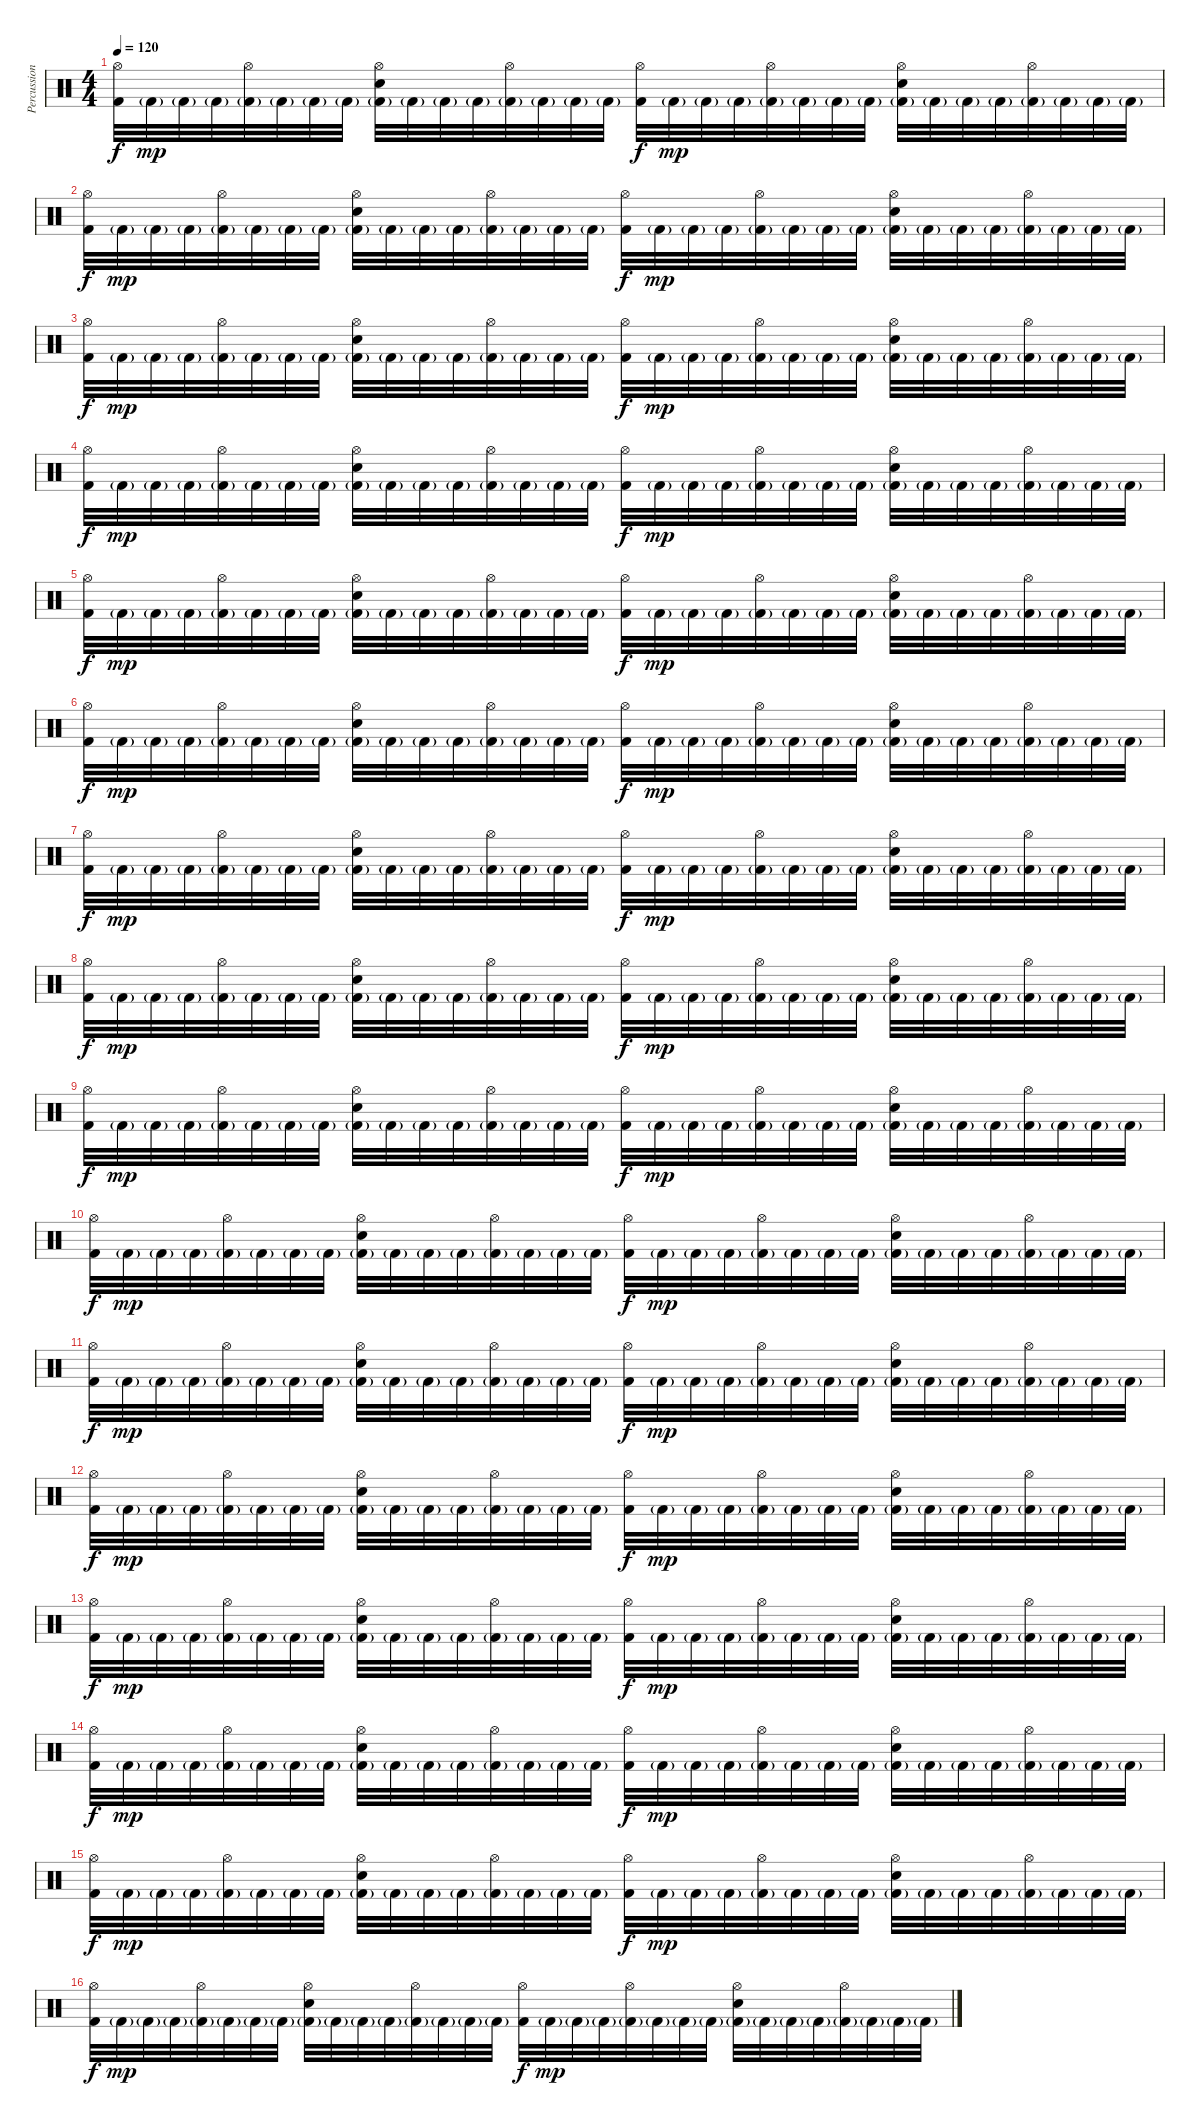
\track ("Percussion" "Percussion") {instrument percussion}
\staff {score}
\articulation defaults
\ts (4 4)
\tempo 120
\clef neutral
\ks c
("Hi-Hat (open)" "Kick (hit) 2").32{dy f} "Kick (hit) 2"{g}.32{dy mp} "Kick (hit) 2"{g}.32 "Kick (hit) 2"{g}.32 ("Hi-Hat (open)" "Kick (hit) 2"{g}).32 "Kick (hit) 2"{g}.32 "Kick (hit) 2"{g}.32 "Kick (hit) 2"{g}.32 ("Hi-Hat (open)" "Electric Snare (hit)" "Kick (hit) 2"{g}).32 "Kick (hit) 2"{g}.32 "Kick (hit) 2"{g}.32 "Kick (hit) 2"{g}.32 ("Hi-Hat (open)" "Kick (hit) 2"{g}).32 "Kick (hit) 2"{g}.32 "Kick (hit) 2"{g}.32 "Kick (hit) 2"{g}.32 ("Hi-Hat (open)" "Kick (hit) 2").32{dy f} "Kick (hit) 2"{g}.32{dy mp} "Kick (hit) 2"{g}.32 "Kick (hit) 2"{g}.32 ("Hi-Hat (open)" "Kick (hit) 2"{g}).32 "Kick (hit) 2"{g}.32 "Kick (hit) 2"{g}.32 "Kick (hit) 2"{g}.32 ("Hi-Hat (open)" "Electric Snare (hit)" "Kick (hit) 2"{g}).32 "Kick (hit) 2"{g}.32 "Kick (hit) 2"{g}.32 "Kick (hit) 2"{g}.32 ("Hi-Hat (open)" "Kick (hit) 2"{g}).32 "Kick (hit) 2"{g}.32 "Kick (hit) 2"{g}.32 "Kick (hit) 2"{g}.32 |
("Hi-Hat (open)" "Kick (hit) 2").32{dy f} "Kick (hit) 2"{g}.32{dy mp} "Kick (hit) 2"{g}.32 "Kick (hit) 2"{g}.32 ("Hi-Hat (open)" "Kick (hit) 2"{g}).32 "Kick (hit) 2"{g}.32 "Kick (hit) 2"{g}.32 "Kick (hit) 2"{g}.32 ("Hi-Hat (open)" "Electric Snare (hit)" "Kick (hit) 2"{g}).32 "Kick (hit) 2"{g}.32 "Kick (hit) 2"{g}.32 "Kick (hit) 2"{g}.32 ("Hi-Hat (open)" "Kick (hit) 2"{g}).32 "Kick (hit) 2"{g}.32 "Kick (hit) 2"{g}.32 "Kick (hit) 2"{g}.32 ("Hi-Hat (open)" "Kick (hit) 2").32{dy f} "Kick (hit) 2"{g}.32{dy mp} "Kick (hit) 2"{g}.32 "Kick (hit) 2"{g}.32 ("Hi-Hat (open)" "Kick (hit) 2"{g}).32 "Kick (hit) 2"{g}.32 "Kick (hit) 2"{g}.32 "Kick (hit) 2"{g}.32 ("Hi-Hat (open)" "Electric Snare (hit)" "Kick (hit) 2"{g}).32 "Kick (hit) 2"{g}.32 "Kick (hit) 2"{g}.32 "Kick (hit) 2"{g}.32 ("Hi-Hat (open)" "Kick (hit) 2"{g}).32 "Kick (hit) 2"{g}.32 "Kick (hit) 2"{g}.32 "Kick (hit) 2"{g}.32 |
("Hi-Hat (open)" "Kick (hit) 2").32{dy f} "Kick (hit) 2"{g}.32{dy mp} "Kick (hit) 2"{g}.32 "Kick (hit) 2"{g}.32 ("Hi-Hat (open)" "Kick (hit) 2"{g}).32 "Kick (hit) 2"{g}.32 "Kick (hit) 2"{g}.32 "Kick (hit) 2"{g}.32 ("Hi-Hat (open)" "Electric Snare (hit)" "Kick (hit) 2"{g}).32 "Kick (hit) 2"{g}.32 "Kick (hit) 2"{g}.32 "Kick (hit) 2"{g}.32 ("Hi-Hat (open)" "Kick (hit) 2"{g}).32 "Kick (hit) 2"{g}.32 "Kick (hit) 2"{g}.32 "Kick (hit) 2"{g}.32 ("Hi-Hat (open)" "Kick (hit) 2").32{dy f} "Kick (hit) 2"{g}.32{dy mp} "Kick (hit) 2"{g}.32 "Kick (hit) 2"{g}.32 ("Hi-Hat (open)" "Kick (hit) 2"{g}).32 "Kick (hit) 2"{g}.32 "Kick (hit) 2"{g}.32 "Kick (hit) 2"{g}.32 ("Hi-Hat (open)" "Electric Snare (hit)" "Kick (hit) 2"{g}).32 "Kick (hit) 2"{g}.32 "Kick (hit) 2"{g}.32 "Kick (hit) 2"{g}.32 ("Hi-Hat (open)" "Kick (hit) 2"{g}).32 "Kick (hit) 2"{g}.32 "Kick (hit) 2"{g}.32 "Kick (hit) 2"{g}.32 |
("Hi-Hat (open)" "Kick (hit) 2").32{dy f} "Kick (hit) 2"{g}.32{dy mp} "Kick (hit) 2"{g}.32 "Kick (hit) 2"{g}.32 ("Hi-Hat (open)" "Kick (hit) 2"{g}).32 "Kick (hit) 2"{g}.32 "Kick (hit) 2"{g}.32 "Kick (hit) 2"{g}.32 ("Hi-Hat (open)" "Electric Snare (hit)" "Kick (hit) 2"{g}).32 "Kick (hit) 2"{g}.32 "Kick (hit) 2"{g}.32 "Kick (hit) 2"{g}.32 ("Hi-Hat (open)" "Kick (hit) 2"{g}).32 "Kick (hit) 2"{g}.32 "Kick (hit) 2"{g}.32 "Kick (hit) 2"{g}.32 ("Hi-Hat (open)" "Kick (hit) 2").32{dy f} "Kick (hit) 2"{g}.32{dy mp} "Kick (hit) 2"{g}.32 "Kick (hit) 2"{g}.32 ("Hi-Hat (open)" "Kick (hit) 2"{g}).32 "Kick (hit) 2"{g}.32 "Kick (hit) 2"{g}.32 "Kick (hit) 2"{g}.32 ("Hi-Hat (open)" "Electric Snare (hit)" "Kick (hit) 2"{g}).32 "Kick (hit) 2"{g}.32 "Kick (hit) 2"{g}.32 "Kick (hit) 2"{g}.32 ("Hi-Hat (open)" "Kick (hit) 2"{g}).32 "Kick (hit) 2"{g}.32 "Kick (hit) 2"{g}.32 "Kick (hit) 2"{g}.32 |
("Hi-Hat (open)" "Kick (hit) 2").32{dy f} "Kick (hit) 2"{g}.32{dy mp} "Kick (hit) 2"{g}.32 "Kick (hit) 2"{g}.32 ("Hi-Hat (open)" "Kick (hit) 2"{g}).32 "Kick (hit) 2"{g}.32 "Kick (hit) 2"{g}.32 "Kick (hit) 2"{g}.32 ("Hi-Hat (open)" "Electric Snare (hit)" "Kick (hit) 2"{g}).32 "Kick (hit) 2"{g}.32 "Kick (hit) 2"{g}.32 "Kick (hit) 2"{g}.32 ("Hi-Hat (open)" "Kick (hit) 2"{g}).32 "Kick (hit) 2"{g}.32 "Kick (hit) 2"{g}.32 "Kick (hit) 2"{g}.32 ("Hi-Hat (open)" "Kick (hit) 2").32{dy f} "Kick (hit) 2"{g}.32{dy mp} "Kick (hit) 2"{g}.32 "Kick (hit) 2"{g}.32 ("Hi-Hat (open)" "Kick (hit) 2"{g}).32 "Kick (hit) 2"{g}.32 "Kick (hit) 2"{g}.32 "Kick (hit) 2"{g}.32 ("Hi-Hat (open)" "Electric Snare (hit)" "Kick (hit) 2"{g}).32 "Kick (hit) 2"{g}.32 "Kick (hit) 2"{g}.32 "Kick (hit) 2"{g}.32 ("Hi-Hat (open)" "Kick (hit) 2"{g}).32 "Kick (hit) 2"{g}.32 "Kick (hit) 2"{g}.32 "Kick (hit) 2"{g}.32 |
("Hi-Hat (open)" "Kick (hit) 2").32{dy f} "Kick (hit) 2"{g}.32{dy mp} "Kick (hit) 2"{g}.32 "Kick (hit) 2"{g}.32 ("Hi-Hat (open)" "Kick (hit) 2"{g}).32 "Kick (hit) 2"{g}.32 "Kick (hit) 2"{g}.32 "Kick (hit) 2"{g}.32 ("Hi-Hat (open)" "Electric Snare (hit)" "Kick (hit) 2"{g}).32 "Kick (hit) 2"{g}.32 "Kick (hit) 2"{g}.32 "Kick (hit) 2"{g}.32 ("Hi-Hat (open)" "Kick (hit) 2"{g}).32 "Kick (hit) 2"{g}.32 "Kick (hit) 2"{g}.32 "Kick (hit) 2"{g}.32 ("Hi-Hat (open)" "Kick (hit) 2").32{dy f} "Kick (hit) 2"{g}.32{dy mp} "Kick (hit) 2"{g}.32 "Kick (hit) 2"{g}.32 ("Hi-Hat (open)" "Kick (hit) 2"{g}).32 "Kick (hit) 2"{g}.32 "Kick (hit) 2"{g}.32 "Kick (hit) 2"{g}.32 ("Hi-Hat (open)" "Electric Snare (hit)" "Kick (hit) 2"{g}).32 "Kick (hit) 2"{g}.32 "Kick (hit) 2"{g}.32 "Kick (hit) 2"{g}.32 ("Hi-Hat (open)" "Kick (hit) 2"{g}).32 "Kick (hit) 2"{g}.32 "Kick (hit) 2"{g}.32 "Kick (hit) 2"{g}.32 |
("Hi-Hat (open)" "Kick (hit) 2").32{dy f} "Kick (hit) 2"{g}.32{dy mp} "Kick (hit) 2"{g}.32 "Kick (hit) 2"{g}.32 ("Hi-Hat (open)" "Kick (hit) 2"{g}).32 "Kick (hit) 2"{g}.32 "Kick (hit) 2"{g}.32 "Kick (hit) 2"{g}.32 ("Hi-Hat (open)" "Electric Snare (hit)" "Kick (hit) 2"{g}).32 "Kick (hit) 2"{g}.32 "Kick (hit) 2"{g}.32 "Kick (hit) 2"{g}.32 ("Hi-Hat (open)" "Kick (hit) 2"{g}).32 "Kick (hit) 2"{g}.32 "Kick (hit) 2"{g}.32 "Kick (hit) 2"{g}.32 ("Hi-Hat (open)" "Kick (hit) 2").32{dy f} "Kick (hit) 2"{g}.32{dy mp} "Kick (hit) 2"{g}.32 "Kick (hit) 2"{g}.32 ("Hi-Hat (open)" "Kick (hit) 2"{g}).32 "Kick (hit) 2"{g}.32 "Kick (hit) 2"{g}.32 "Kick (hit) 2"{g}.32 ("Hi-Hat (open)" "Electric Snare (hit)" "Kick (hit) 2"{g}).32 "Kick (hit) 2"{g}.32 "Kick (hit) 2"{g}.32 "Kick (hit) 2"{g}.32 ("Hi-Hat (open)" "Kick (hit) 2"{g}).32 "Kick (hit) 2"{g}.32 "Kick (hit) 2"{g}.32 "Kick (hit) 2"{g}.32 |
("Hi-Hat (open)" "Kick (hit) 2").32{dy f} "Kick (hit) 2"{g}.32{dy mp} "Kick (hit) 2"{g}.32 "Kick (hit) 2"{g}.32 ("Hi-Hat (open)" "Kick (hit) 2"{g}).32 "Kick (hit) 2"{g}.32 "Kick (hit) 2"{g}.32 "Kick (hit) 2"{g}.32 ("Hi-Hat (open)" "Electric Snare (hit)" "Kick (hit) 2"{g}).32 "Kick (hit) 2"{g}.32 "Kick (hit) 2"{g}.32 "Kick (hit) 2"{g}.32 ("Hi-Hat (open)" "Kick (hit) 2"{g}).32 "Kick (hit) 2"{g}.32 "Kick (hit) 2"{g}.32 "Kick (hit) 2"{g}.32 ("Hi-Hat (open)" "Kick (hit) 2").32{dy f} "Kick (hit) 2"{g}.32{dy mp} "Kick (hit) 2"{g}.32 "Kick (hit) 2"{g}.32 ("Hi-Hat (open)" "Kick (hit) 2"{g}).32 "Kick (hit) 2"{g}.32 "Kick (hit) 2"{g}.32 "Kick (hit) 2"{g}.32 ("Hi-Hat (open)" "Electric Snare (hit)" "Kick (hit) 2"{g}).32 "Kick (hit) 2"{g}.32 "Kick (hit) 2"{g}.32 "Kick (hit) 2"{g}.32 ("Hi-Hat (open)" "Kick (hit) 2"{g}).32 "Kick (hit) 2"{g}.32 "Kick (hit) 2"{g}.32 "Kick (hit) 2"{g}.32 |
("Hi-Hat (open)" "Kick (hit) 2").32{dy f} "Kick (hit) 2"{g}.32{dy mp} "Kick (hit) 2"{g}.32 "Kick (hit) 2"{g}.32 ("Hi-Hat (open)" "Kick (hit) 2"{g}).32 "Kick (hit) 2"{g}.32 "Kick (hit) 2"{g}.32 "Kick (hit) 2"{g}.32 ("Hi-Hat (open)" "Electric Snare (hit)" "Kick (hit) 2"{g}).32 "Kick (hit) 2"{g}.32 "Kick (hit) 2"{g}.32 "Kick (hit) 2"{g}.32 ("Hi-Hat (open)" "Kick (hit) 2"{g}).32 "Kick (hit) 2"{g}.32 "Kick (hit) 2"{g}.32 "Kick (hit) 2"{g}.32 ("Hi-Hat (open)" "Kick (hit) 2").32{dy f} "Kick (hit) 2"{g}.32{dy mp} "Kick (hit) 2"{g}.32 "Kick (hit) 2"{g}.32 ("Hi-Hat (open)" "Kick (hit) 2"{g}).32 "Kick (hit) 2"{g}.32 "Kick (hit) 2"{g}.32 "Kick (hit) 2"{g}.32 ("Hi-Hat (open)" "Electric Snare (hit)" "Kick (hit) 2"{g}).32 "Kick (hit) 2"{g}.32 "Kick (hit) 2"{g}.32 "Kick (hit) 2"{g}.32 ("Hi-Hat (open)" "Kick (hit) 2"{g}).32 "Kick (hit) 2"{g}.32 "Kick (hit) 2"{g}.32 "Kick (hit) 2"{g}.32 |
("Hi-Hat (open)" "Kick (hit) 2").32{dy f} "Kick (hit) 2"{g}.32{dy mp} "Kick (hit) 2"{g}.32 "Kick (hit) 2"{g}.32 ("Hi-Hat (open)" "Kick (hit) 2"{g}).32 "Kick (hit) 2"{g}.32 "Kick (hit) 2"{g}.32 "Kick (hit) 2"{g}.32 ("Hi-Hat (open)" "Electric Snare (hit)" "Kick (hit) 2"{g}).32 "Kick (hit) 2"{g}.32 "Kick (hit) 2"{g}.32 "Kick (hit) 2"{g}.32 ("Hi-Hat (open)" "Kick (hit) 2"{g}).32 "Kick (hit) 2"{g}.32 "Kick (hit) 2"{g}.32 "Kick (hit) 2"{g}.32 ("Hi-Hat (open)" "Kick (hit) 2").32{dy f} "Kick (hit) 2"{g}.32{dy mp} "Kick (hit) 2"{g}.32 "Kick (hit) 2"{g}.32 ("Hi-Hat (open)" "Kick (hit) 2"{g}).32 "Kick (hit) 2"{g}.32 "Kick (hit) 2"{g}.32 "Kick (hit) 2"{g}.32 ("Hi-Hat (open)" "Electric Snare (hit)" "Kick (hit) 2"{g}).32 "Kick (hit) 2"{g}.32 "Kick (hit) 2"{g}.32 "Kick (hit) 2"{g}.32 ("Hi-Hat (open)" "Kick (hit) 2"{g}).32 "Kick (hit) 2"{g}.32 "Kick (hit) 2"{g}.32 "Kick (hit) 2"{g}.32 |
("Hi-Hat (open)" "Kick (hit) 2").32{dy f} "Kick (hit) 2"{g}.32{dy mp} "Kick (hit) 2"{g}.32 "Kick (hit) 2"{g}.32 ("Hi-Hat (open)" "Kick (hit) 2"{g}).32 "Kick (hit) 2"{g}.32 "Kick (hit) 2"{g}.32 "Kick (hit) 2"{g}.32 ("Hi-Hat (open)" "Electric Snare (hit)" "Kick (hit) 2"{g}).32 "Kick (hit) 2"{g}.32 "Kick (hit) 2"{g}.32 "Kick (hit) 2"{g}.32 ("Hi-Hat (open)" "Kick (hit) 2"{g}).32 "Kick (hit) 2"{g}.32 "Kick (hit) 2"{g}.32 "Kick (hit) 2"{g}.32 ("Hi-Hat (open)" "Kick (hit) 2").32{dy f} "Kick (hit) 2"{g}.32{dy mp} "Kick (hit) 2"{g}.32 "Kick (hit) 2"{g}.32 ("Hi-Hat (open)" "Kick (hit) 2"{g}).32 "Kick (hit) 2"{g}.32 "Kick (hit) 2"{g}.32 "Kick (hit) 2"{g}.32 ("Hi-Hat (open)" "Electric Snare (hit)" "Kick (hit) 2"{g}).32 "Kick (hit) 2"{g}.32 "Kick (hit) 2"{g}.32 "Kick (hit) 2"{g}.32 ("Hi-Hat (open)" "Kick (hit) 2"{g}).32 "Kick (hit) 2"{g}.32 "Kick (hit) 2"{g}.32 "Kick (hit) 2"{g}.32 |
("Hi-Hat (open)" "Kick (hit) 2").32{dy f} "Kick (hit) 2"{g}.32{dy mp} "Kick (hit) 2"{g}.32 "Kick (hit) 2"{g}.32 ("Hi-Hat (open)" "Kick (hit) 2"{g}).32 "Kick (hit) 2"{g}.32 "Kick (hit) 2"{g}.32 "Kick (hit) 2"{g}.32 ("Hi-Hat (open)" "Electric Snare (hit)" "Kick (hit) 2"{g}).32 "Kick (hit) 2"{g}.32 "Kick (hit) 2"{g}.32 "Kick (hit) 2"{g}.32 ("Hi-Hat (open)" "Kick (hit) 2"{g}).32 "Kick (hit) 2"{g}.32 "Kick (hit) 2"{g}.32 "Kick (hit) 2"{g}.32 ("Hi-Hat (open)" "Kick (hit) 2").32{dy f} "Kick (hit) 2"{g}.32{dy mp} "Kick (hit) 2"{g}.32 "Kick (hit) 2"{g}.32 ("Hi-Hat (open)" "Kick (hit) 2"{g}).32 "Kick (hit) 2"{g}.32 "Kick (hit) 2"{g}.32 "Kick (hit) 2"{g}.32 ("Hi-Hat (open)" "Electric Snare (hit)" "Kick (hit) 2"{g}).32 "Kick (hit) 2"{g}.32 "Kick (hit) 2"{g}.32 "Kick (hit) 2"{g}.32 ("Hi-Hat (open)" "Kick (hit) 2"{g}).32 "Kick (hit) 2"{g}.32 "Kick (hit) 2"{g}.32 "Kick (hit) 2"{g}.32 |
("Hi-Hat (open)" "Kick (hit) 2").32{dy f} "Kick (hit) 2"{g}.32{dy mp} "Kick (hit) 2"{g}.32 "Kick (hit) 2"{g}.32 ("Hi-Hat (open)" "Kick (hit) 2"{g}).32 "Kick (hit) 2"{g}.32 "Kick (hit) 2"{g}.32 "Kick (hit) 2"{g}.32 ("Hi-Hat (open)" "Electric Snare (hit)" "Kick (hit) 2"{g}).32 "Kick (hit) 2"{g}.32 "Kick (hit) 2"{g}.32 "Kick (hit) 2"{g}.32 ("Hi-Hat (open)" "Kick (hit) 2"{g}).32 "Kick (hit) 2"{g}.32 "Kick (hit) 2"{g}.32 "Kick (hit) 2"{g}.32 ("Hi-Hat (open)" "Kick (hit) 2").32{dy f} "Kick (hit) 2"{g}.32{dy mp} "Kick (hit) 2"{g}.32 "Kick (hit) 2"{g}.32 ("Hi-Hat (open)" "Kick (hit) 2"{g}).32 "Kick (hit) 2"{g}.32 "Kick (hit) 2"{g}.32 "Kick (hit) 2"{g}.32 ("Hi-Hat (open)" "Electric Snare (hit)" "Kick (hit) 2"{g}).32 "Kick (hit) 2"{g}.32 "Kick (hit) 2"{g}.32 "Kick (hit) 2"{g}.32 ("Hi-Hat (open)" "Kick (hit) 2"{g}).32 "Kick (hit) 2"{g}.32 "Kick (hit) 2"{g}.32 "Kick (hit) 2"{g}.32 |
("Hi-Hat (open)" "Kick (hit) 2").32{dy f} "Kick (hit) 2"{g}.32{dy mp} "Kick (hit) 2"{g}.32 "Kick (hit) 2"{g}.32 ("Hi-Hat (open)" "Kick (hit) 2"{g}).32 "Kick (hit) 2"{g}.32 "Kick (hit) 2"{g}.32 "Kick (hit) 2"{g}.32 ("Hi-Hat (open)" "Electric Snare (hit)" "Kick (hit) 2"{g}).32 "Kick (hit) 2"{g}.32 "Kick (hit) 2"{g}.32 "Kick (hit) 2"{g}.32 ("Hi-Hat (open)" "Kick (hit) 2"{g}).32 "Kick (hit) 2"{g}.32 "Kick (hit) 2"{g}.32 "Kick (hit) 2"{g}.32 ("Hi-Hat (open)" "Kick (hit) 2").32{dy f} "Kick (hit) 2"{g}.32{dy mp} "Kick (hit) 2"{g}.32 "Kick (hit) 2"{g}.32 ("Hi-Hat (open)" "Kick (hit) 2"{g}).32 "Kick (hit) 2"{g}.32 "Kick (hit) 2"{g}.32 "Kick (hit) 2"{g}.32 ("Hi-Hat (open)" "Electric Snare (hit)" "Kick (hit) 2"{g}).32 "Kick (hit) 2"{g}.32 "Kick (hit) 2"{g}.32 "Kick (hit) 2"{g}.32 ("Hi-Hat (open)" "Kick (hit) 2"{g}).32 "Kick (hit) 2"{g}.32 "Kick (hit) 2"{g}.32 "Kick (hit) 2"{g}.32 |
("Hi-Hat (open)" "Kick (hit) 2").32{dy f} "Kick (hit) 2"{g}.32{dy mp} "Kick (hit) 2"{g}.32 "Kick (hit) 2"{g}.32 ("Hi-Hat (open)" "Kick (hit) 2"{g}).32 "Kick (hit) 2"{g}.32 "Kick (hit) 2"{g}.32 "Kick (hit) 2"{g}.32 ("Hi-Hat (open)" "Electric Snare (hit)" "Kick (hit) 2"{g}).32 "Kick (hit) 2"{g}.32 "Kick (hit) 2"{g}.32 "Kick (hit) 2"{g}.32 ("Hi-Hat (open)" "Kick (hit) 2"{g}).32 "Kick (hit) 2"{g}.32 "Kick (hit) 2"{g}.32 "Kick (hit) 2"{g}.32 ("Hi-Hat (open)" "Kick (hit) 2").32{dy f} "Kick (hit) 2"{g}.32{dy mp} "Kick (hit) 2"{g}.32 "Kick (hit) 2"{g}.32 ("Hi-Hat (open)" "Kick (hit) 2"{g}).32 "Kick (hit) 2"{g}.32 "Kick (hit) 2"{g}.32 "Kick (hit) 2"{g}.32 ("Hi-Hat (open)" "Electric Snare (hit)" "Kick (hit) 2"{g}).32 "Kick (hit) 2"{g}.32 "Kick (hit) 2"{g}.32 "Kick (hit) 2"{g}.32 ("Hi-Hat (open)" "Kick (hit) 2"{g}).32 "Kick (hit) 2"{g}.32 "Kick (hit) 2"{g}.32 "Kick (hit) 2"{g}.32 |
("Hi-Hat (open)" "Kick (hit) 2").32{dy f} "Kick (hit) 2"{g}.32{dy mp} "Kick (hit) 2"{g}.32 "Kick (hit) 2"{g}.32 ("Hi-Hat (open)" "Kick (hit) 2"{g}).32 "Kick (hit) 2"{g}.32 "Kick (hit) 2"{g}.32 "Kick (hit) 2"{g}.32 ("Hi-Hat (open)" "Electric Snare (hit)" "Kick (hit) 2"{g}).32 "Kick (hit) 2"{g}.32 "Kick (hit) 2"{g}.32 "Kick (hit) 2"{g}.32 ("Hi-Hat (open)" "Kick (hit) 2"{g}).32 "Kick (hit) 2"{g}.32 "Kick (hit) 2"{g}.32 "Kick (hit) 2"{g}.32 ("Hi-Hat (open)" "Kick (hit) 2").32{dy f} "Kick (hit) 2"{g}.32{dy mp} "Kick (hit) 2"{g}.32 "Kick (hit) 2"{g}.32 ("Hi-Hat (open)" "Kick (hit) 2"{g}).32 "Kick (hit) 2"{g}.32 "Kick (hit) 2"{g}.32 "Kick (hit) 2"{g}.32 ("Hi-Hat (open)" "Electric Snare (hit)" "Kick (hit) 2"{g}).32 "Kick (hit) 2"{g}.32 "Kick (hit) 2"{g}.32 "Kick (hit) 2"{g}.32 ("Hi-Hat (open)" "Kick (hit) 2"{g}).32 "Kick (hit) 2"{g}.32 "Kick (hit) 2"{g}.32 "Kick (hit) 2"{g}.32
